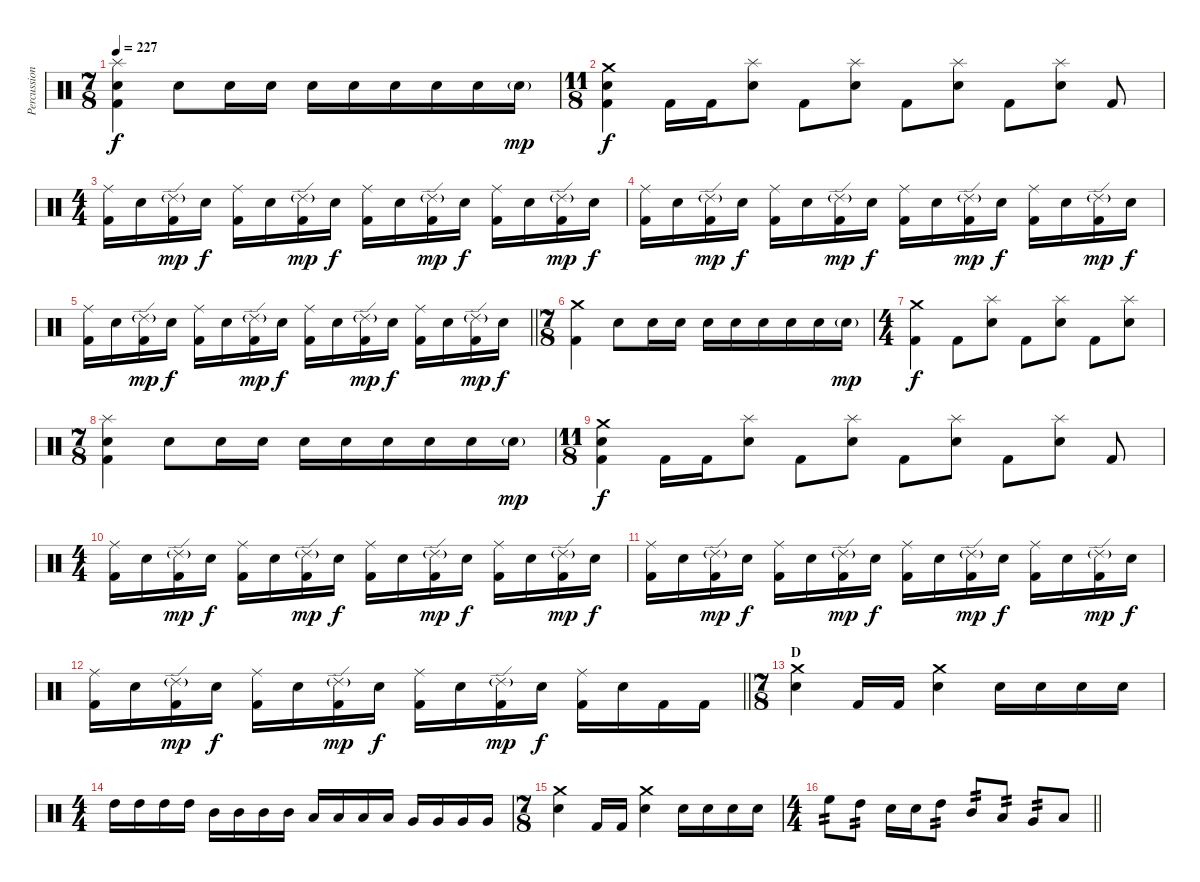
\track ("Percussion" "Percussion") {instrument percussion}
\staff {score}
\articulation defaults
\ts (7 8)
\tempo 227
\clef neutral
\ks c
("Splash (hit)" "Electric Snare (hit)" "Kick (hit) 2").4{dy f} "Electric Snare (hit)".8 "Electric Snare (hit)".16 "Electric Snare (hit)".16 "Electric Snare (hit)".16 "Electric Snare (hit)".16 "Electric Snare (hit)".16 "Electric Snare (hit)".16 "Electric Snare (hit)".16 "Electric Snare (hit)"{g}.16{dy mp} |
\ts (11 8)
("Crash medium (hit)" "Electric Snare (hit)" "Kick (hit) 2").4{dy f} "Kick (hit) 2".16 "Kick (hit) 2".16 ("Splash (hit)" "Electric Snare (hit)").8 "Kick (hit) 2".8 ("Splash (hit)" "Electric Snare (hit)").8 "Kick (hit) 2".8 ("Splash (hit)" "Electric Snare (hit)").8 "Kick (hit) 2".8 ("Splash (hit)" "Electric Snare (hit)").8 "Kick (hit) 2".8 |
\ts (4 4)
("Ride (middle)" "Kick (hit) 2").16 "Electric Snare (hit)".16 ("Ride (edge) 2"{g} "Kick (hit) 2").16{dy mp} "Electric Snare (hit)".16{dy f} ("Ride (middle)" "Kick (hit) 2").16 "Electric Snare (hit)".16 ("Ride (edge) 2"{g} "Kick (hit) 2").16{dy mp} "Electric Snare (hit)".16{dy f} ("Ride (middle)" "Kick (hit) 2").16 "Electric Snare (hit)".16 ("Ride (edge) 2"{g} "Kick (hit) 2").16{dy mp} "Electric Snare (hit)".16{dy f} ("Ride (middle)" "Kick (hit) 2").16 "Electric Snare (hit)".16 ("Ride (edge) 2"{g} "Kick (hit) 2").16{dy mp} "Electric Snare (hit)".16{dy f} |
("Ride (middle)" "Kick (hit) 2").16 "Electric Snare (hit)".16 ("Ride (edge) 2"{g} "Kick (hit) 2").16{dy mp} "Electric Snare (hit)".16{dy f} ("Ride (middle)" "Kick (hit) 2").16 "Electric Snare (hit)".16 ("Ride (edge) 2"{g} "Kick (hit) 2").16{dy mp} "Electric Snare (hit)".16{dy f} ("Ride (middle)" "Kick (hit) 2").16 "Electric Snare (hit)".16 ("Ride (edge) 2"{g} "Kick (hit) 2").16{dy mp} "Electric Snare (hit)".16{dy f} ("Ride (middle)" "Kick (hit) 2").16 "Electric Snare (hit)".16 ("Ride (edge) 2"{g} "Kick (hit) 2").16{dy mp} "Electric Snare (hit)".16{dy f} |
\barLineRight lightlight
("Ride (middle)" "Kick (hit) 2").16 "Electric Snare (hit)".16 ("Ride (edge) 2"{g} "Kick (hit) 2").16{dy mp} "Electric Snare (hit)".16{dy f} ("Ride (middle)" "Kick (hit) 2").16 "Electric Snare (hit)".16 ("Ride (edge) 2"{g} "Kick (hit) 2").16{dy mp} "Electric Snare (hit)".16{dy f} ("Ride (middle)" "Kick (hit) 2").16 "Electric Snare (hit)".16 ("Ride (edge) 2"{g} "Kick (hit) 2").16{dy mp} "Electric Snare (hit)".16{dy f} ("Ride (middle)" "Kick (hit) 2").16 "Electric Snare (hit)".16 ("Ride (edge) 2"{g} "Kick (hit) 2").16{dy mp} "Electric Snare (hit)".16{dy f} |
\ts (7 8)
\section ("" "")
("Crash medium (hit)" "Kick (hit) 2").4 "Electric Snare (hit)".8 "Electric Snare (hit)".16 "Electric Snare (hit)".16 "Electric Snare (hit)".16 "Electric Snare (hit)".16 "Electric Snare (hit)".16 "Electric Snare (hit)".16 "Electric Snare (hit)".16 "Electric Snare (hit)"{g}.16{dy mp} |
\ts (4 4)
("Crash medium (hit)" "Kick (hit) 2").4{dy f} "Kick (hit) 2".8 ("Splash (hit)" "Electric Snare (hit)").8 "Kick (hit) 2".8 ("Splash (hit)" "Electric Snare (hit)").8 "Kick (hit) 2".8 ("Splash (hit)" "Electric Snare (hit)").8 |
\ts (7 8)
("Splash (hit)" "Electric Snare (hit)" "Kick (hit) 2").4 "Electric Snare (hit)".8 "Electric Snare (hit)".16 "Electric Snare (hit)".16 "Electric Snare (hit)".16 "Electric Snare (hit)".16 "Electric Snare (hit)".16 "Electric Snare (hit)".16 "Electric Snare (hit)".16 "Electric Snare (hit)"{g}.16{dy mp} |
\ts (11 8)
("Crash medium (hit)" "Electric Snare (hit)" "Kick (hit) 2").4{dy f} "Kick (hit) 2".16 "Kick (hit) 2".16 ("Splash (hit)" "Electric Snare (hit)").8 "Kick (hit) 2".8 ("Splash (hit)" "Electric Snare (hit)").8 "Kick (hit) 2".8 ("Splash (hit)" "Electric Snare (hit)").8 "Kick (hit) 2".8 ("Splash (hit)" "Electric Snare (hit)").8 "Kick (hit) 2".8 |
\ts (4 4)
("Ride (middle)" "Kick (hit) 2").16 "Electric Snare (hit)".16 ("Ride (edge) 2"{g} "Kick (hit) 2").16{dy mp} "Electric Snare (hit)".16{dy f} ("Ride (middle)" "Kick (hit) 2").16 "Electric Snare (hit)".16 ("Ride (edge) 2"{g} "Kick (hit) 2").16{dy mp} "Electric Snare (hit)".16{dy f} ("Ride (middle)" "Kick (hit) 2").16 "Electric Snare (hit)".16 ("Ride (edge) 2"{g} "Kick (hit) 2").16{dy mp} "Electric Snare (hit)".16{dy f} ("Ride (middle)" "Kick (hit) 2").16 "Electric Snare (hit)".16 ("Ride (edge) 2"{g} "Kick (hit) 2").16{dy mp} "Electric Snare (hit)".16{dy f} |
("Ride (middle)" "Kick (hit) 2").16 "Electric Snare (hit)".16 ("Ride (edge) 2"{g} "Kick (hit) 2").16{dy mp} "Electric Snare (hit)".16{dy f} ("Ride (middle)" "Kick (hit) 2").16 "Electric Snare (hit)".16 ("Ride (edge) 2"{g} "Kick (hit) 2").16{dy mp} "Electric Snare (hit)".16{dy f} ("Ride (middle)" "Kick (hit) 2").16 "Electric Snare (hit)".16 ("Ride (edge) 2"{g} "Kick (hit) 2").16{dy mp} "Electric Snare (hit)".16{dy f} ("Ride (middle)" "Kick (hit) 2").16 "Electric Snare (hit)".16 ("Ride (edge) 2"{g} "Kick (hit) 2").16{dy mp} "Electric Snare (hit)".16{dy f} |
\barLineRight lightlight
("Ride (middle)" "Kick (hit) 2").16 "Electric Snare (hit)".16 ("Ride (edge) 2"{g} "Kick (hit) 2").16{dy mp} "Electric Snare (hit)".16{dy f} ("Ride (middle)" "Kick (hit) 2").16 "Electric Snare (hit)".16 ("Ride (edge) 2"{g} "Kick (hit) 2").16{dy mp} "Electric Snare (hit)".16{dy f} ("Ride (middle)" "Kick (hit) 2").16 "Electric Snare (hit)".16 ("Ride (edge) 2"{g} "Kick (hit) 2").16{dy mp} "Electric Snare (hit)".16{dy f} ("Ride (middle)" "Kick (hit) 2").16 "Electric Snare (hit)".16 "Kick (hit) 2".16 "Kick (hit) 2".16 |
\ts (7 8)
\section ("" "D")
("Crash medium (hit)" "Electric Snare (hit)").4 "Kick (hit) 2".16 "Kick (hit) 2".16 ("Crash medium (hit)" "Electric Snare (hit)").4 "Electric Snare (hit)".16 "Electric Snare (hit)".16 "Electric Snare (hit)".16 "Electric Snare (hit)".16 |
\ts (4 4)
"High Tom (hit)".16 "High Tom (hit)".16 "High Tom (hit)".16 "High Tom (hit)".16 "Mid Tom (hit)".16 "Mid Tom (hit)".16 "Mid Tom (hit)".16 "Mid Tom (hit)".16 "Low Tom (hit)".16 "Low Tom (hit)".16 "Low Tom (hit)".16 "Low Tom (hit)".16 "Very Low Tom (hit)".16 "Very Low Tom (hit)".16 "Very Low Tom (hit)".16 "Very Low Tom (hit)".16 |
\ts (7 8)
("Crash medium (hit)" "Electric Snare (hit)").4 "Kick (hit) 2".16 "Kick (hit) 2".16 ("Crash medium (hit)" "Electric Snare (hit)").4 "Electric Snare (hit)".16 "Electric Snare (hit)".16 "Electric Snare (hit)".16 "Electric Snare (hit)".16 |
\ts (4 4)
\barLineRight lightlight "High Floor Tom (hit)".8{tp 2} "High Tom (hit)".8{tp 2} "Electric Snare (hit)".16 "Electric Snare (hit)".16 "High Tom (hit)".8{tp 2} "Mid Tom (hit)".8{tp 2} "Low Tom (hit)".8{tp 2} "Very Low Tom (hit)".8{tp 2} "Low Tom (hit)".8
